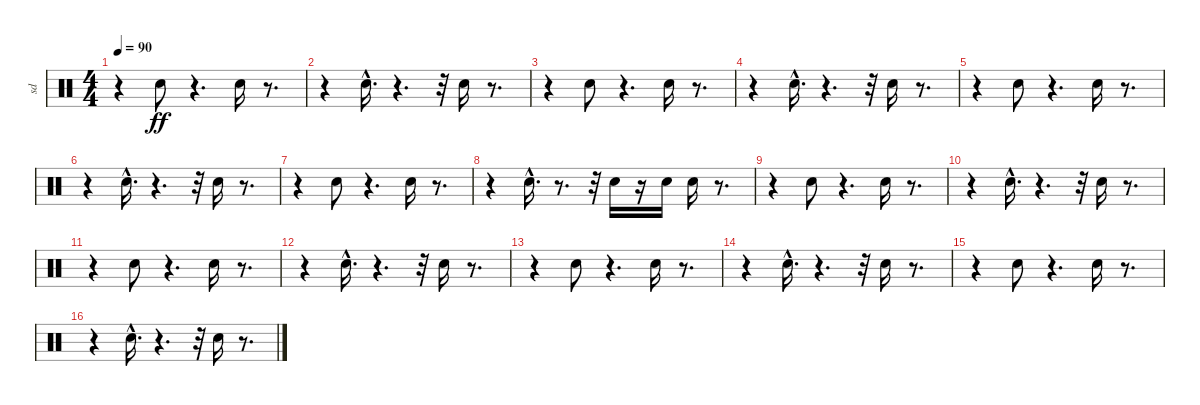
\track ("sd" "sd") {instrument percussion}
\staff {score}
\articulation defaults
\ts (4 4)
\tempo 90
\clef neutral
\ks c
r.4{dy ff} "Snare (hit) 2".8 r.4{d} "Snare (hit) 2".16 r.8{d} |
r.4 "Snare (hit) 2"{hac}.16{d} r.4{d} r.32 "Snare (hit) 2".16 r.8{d} |
r.4 "Snare (hit) 2".8 r.4{d} "Snare (hit) 2".16 r.8{d} |
r.4 "Snare (hit) 2"{hac}.16{d} r.4{d} r.32 "Snare (hit) 2".16 r.8{d} |
r.4 "Snare (hit) 2".8 r.4{d} "Snare (hit) 2".16 r.8{d} |
r.4 "Snare (hit) 2"{hac}.16{d} r.4{d} r.32 "Snare (hit) 2".16 r.8{d} |
r.4 "Snare (hit) 2".8 r.4{d} "Snare (hit) 2".16 r.8{d} |
r.4 "Snare (hit) 2"{hac}.16{d} r.8{d} r.32 "Snare (hit) 2".16 r.16 "Snare (hit) 2".16 "Snare (hit) 2".16 r.8{d} |
r.4 "Snare (hit) 2".8 r.4{d} "Snare (hit) 2".16 r.8{d} |
r.4 "Snare (hit) 2"{hac}.16{d} r.4{d} r.32 "Snare (hit) 2".16 r.8{d} |
r.4 "Snare (hit) 2".8 r.4{d} "Snare (hit) 2".16 r.8{d} |
r.4 "Snare (hit) 2"{hac}.16{d} r.4{d} r.32 "Snare (hit) 2".16 r.8{d} |
r.4 "Snare (hit) 2".8 r.4{d} "Snare (hit) 2".16 r.8{d} |
r.4 "Snare (hit) 2"{hac}.16{d} r.4{d} r.32 "Snare (hit) 2".16 r.8{d} |
r.4 "Snare (hit) 2".8 r.4{d} "Snare (hit) 2".16 r.8{d} |
r.4 "Snare (hit) 2"{hac}.16{d} r.4{d} r.32 "Snare (hit) 2".16 r.8{d}
